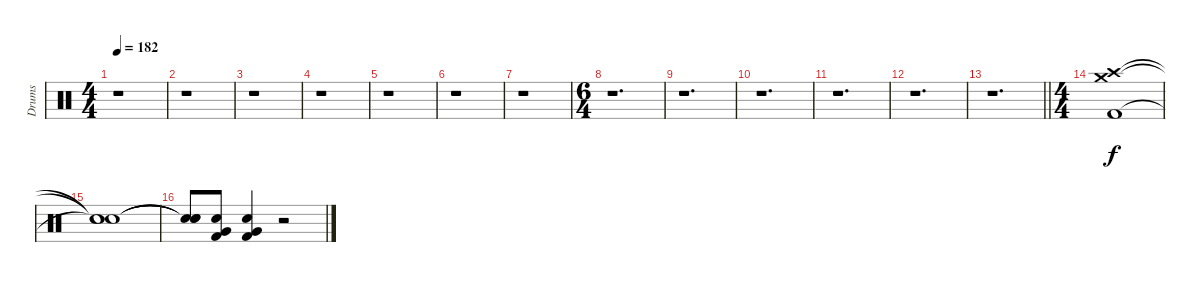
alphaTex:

\track ("Drums" "Drums") {instrument percussion}
\staff {score}
\articulation defaults
\ts (4 4)
\tempo 182
\clef neutral
\ks c
r.1{dy f} |
r.1 |
r.1 |
r.1 |
r.1 |
r.1 |
r.1 |
\ts (6 4)
r.1{d} |
r.1{d} |
r.1{d} |
r.1{d} |
r.1{d} |
\barLineRight lightlight
r.1{d} |
\ts (4 4)
("Crash high (hit)" "Crash medium (hit)" "Kick (hit) 2").1 |
("Snare (hit)"{t} "Snare (hit)"{t} "Snare (hit)"{t}).1 |
("Snare (hit)"{t} "Snare (hit)"{t} "Snare (hit)"{t}).8 ("Very Low Tom (hit)" "Electric Snare (hit)" "Kick (hit) 2").8 ("Very Low Tom (hit)" "Electric Snare (hit)" "Kick (hit) 2").4 r.2
